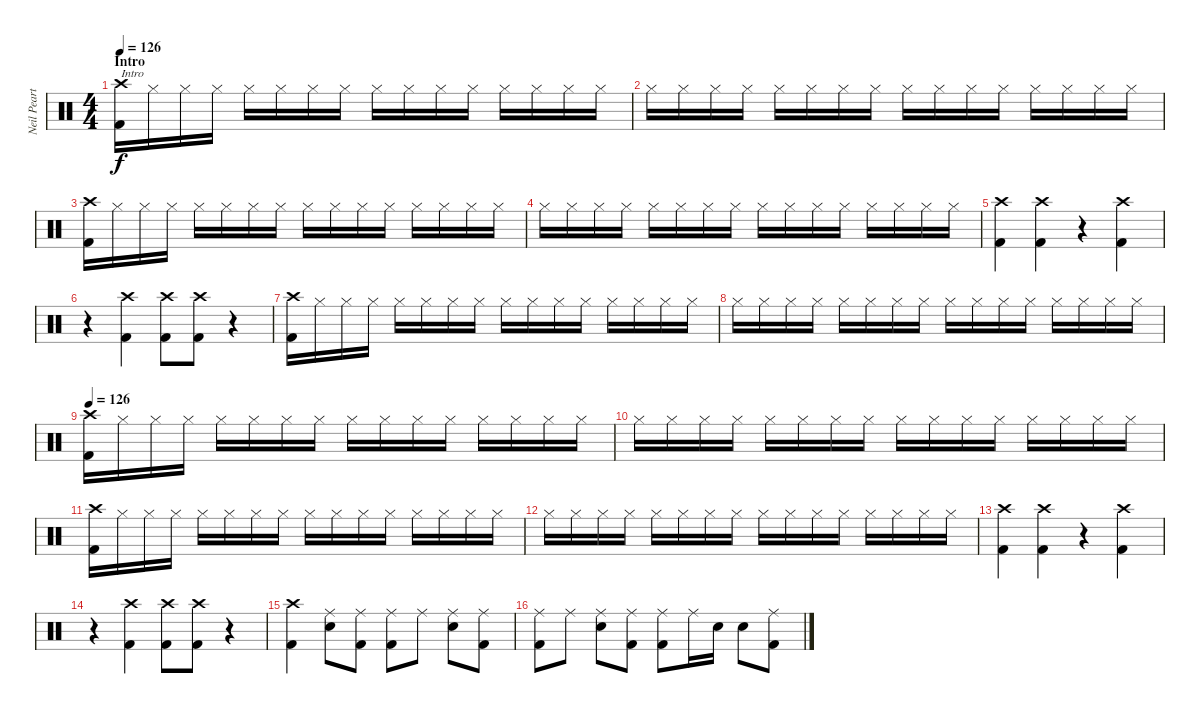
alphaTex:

\track ("Neil Peart" "Neil Peart") {instrument percussion}
\staff {score}
\articulation defaults
\ts (4 4)
\section ("" "Intro")
\tempo 126
\clef neutral
\ks c
("Crash high (hit)" "Kick (hit) 2").16{txt "Intro" dy f} "Hi-Hat (closed)".16 "Hi-Hat (closed)".16 "Hi-Hat (closed)".16 "Hi-Hat (closed)".16 "Hi-Hat (closed)".16 "Hi-Hat (closed)".16 "Hi-Hat (closed)".16 "Hi-Hat (closed)".16 "Hi-Hat (closed)".16 "Hi-Hat (closed)".16 "Hi-Hat (closed)".16 "Hi-Hat (closed)".16 "Hi-Hat (closed)".16 "Hi-Hat (closed)".16 "Hi-Hat (closed)".16 |
"Hi-Hat (closed)".16 "Hi-Hat (closed)".16 "Hi-Hat (closed)".16 "Hi-Hat (closed)".16 "Hi-Hat (closed)".16 "Hi-Hat (closed)".16 "Hi-Hat (closed)".16 "Hi-Hat (closed)".16 "Hi-Hat (closed)".16 "Hi-Hat (closed)".16 "Hi-Hat (closed)".16 "Hi-Hat (closed)".16 "Hi-Hat (closed)".16 "Hi-Hat (closed)".16 "Hi-Hat (closed)".16 "Hi-Hat (closed)".16 |
("Crash high (hit)" "Kick (hit) 2").16 "Hi-Hat (closed)".16 "Hi-Hat (closed)".16 "Hi-Hat (closed)".16 "Hi-Hat (closed)".16 "Hi-Hat (closed)".16 "Hi-Hat (closed)".16 "Hi-Hat (closed)".16 "Hi-Hat (closed)".16 "Hi-Hat (closed)".16 "Hi-Hat (closed)".16 "Hi-Hat (closed)".16 "Hi-Hat (closed)".16 "Hi-Hat (closed)".16 "Hi-Hat (closed)".16 "Hi-Hat (closed)".16 |
"Hi-Hat (closed)".16 "Hi-Hat (closed)".16 "Hi-Hat (closed)".16 "Hi-Hat (closed)".16 "Hi-Hat (closed)".16 "Hi-Hat (closed)".16 "Hi-Hat (closed)".16 "Hi-Hat (closed)".16 "Hi-Hat (closed)".16 "Hi-Hat (closed)".16 "Hi-Hat (closed)".16 "Hi-Hat (closed)".16 "Hi-Hat (closed)".16 "Hi-Hat (closed)".16 "Hi-Hat (closed)".16 "Hi-Hat (closed)".16 |
("Crash high (hit)" "Kick (hit) 2").4 ("Crash high (hit)" "Kick (hit) 2").4 r.4 ("Crash high (hit)" "Kick (hit) 2").4 |
r.4 ("Crash high (hit)" "Kick (hit) 2").4 ("Crash high (hit)" "Kick (hit) 2").8 ("Crash high (hit)" "Kick (hit) 2").8 r.4 |
("Crash high (hit)" "Kick (hit) 2").16 "Hi-Hat (closed)".16 "Hi-Hat (closed)".16 "Hi-Hat (closed)".16 "Hi-Hat (closed)".16 "Hi-Hat (closed)".16 "Hi-Hat (closed)".16 "Hi-Hat (closed)".16 "Hi-Hat (closed)".16 "Hi-Hat (closed)".16 "Hi-Hat (closed)".16 "Hi-Hat (closed)".16 "Hi-Hat (closed)".16 "Hi-Hat (closed)".16 "Hi-Hat (closed)".16 "Hi-Hat (closed)".16 |
"Hi-Hat (closed)".16 "Hi-Hat (closed)".16 "Hi-Hat (closed)".16 "Hi-Hat (closed)".16 "Hi-Hat (closed)".16 "Hi-Hat (closed)".16 "Hi-Hat (closed)".16 "Hi-Hat (closed)".16 "Hi-Hat (closed)".16 "Hi-Hat (closed)".16 "Hi-Hat (closed)".16 "Hi-Hat (closed)".16 "Hi-Hat (closed)".16 "Hi-Hat (closed)".16 "Hi-Hat (closed)".16 "Hi-Hat (closed)".16 |
\tempo 126
("Crash high (hit)" "Kick (hit) 2").16 "Hi-Hat (closed)".16 "Hi-Hat (closed)".16 "Hi-Hat (closed)".16 "Hi-Hat (closed)".16 "Hi-Hat (closed)".16 "Hi-Hat (closed)".16 "Hi-Hat (closed)".16 "Hi-Hat (closed)".16 "Hi-Hat (closed)".16 "Hi-Hat (closed)".16 "Hi-Hat (closed)".16 "Hi-Hat (closed)".16 "Hi-Hat (closed)".16 "Hi-Hat (closed)".16 "Hi-Hat (closed)".16 |
"Hi-Hat (closed)".16 "Hi-Hat (closed)".16 "Hi-Hat (closed)".16 "Hi-Hat (closed)".16 "Hi-Hat (closed)".16 "Hi-Hat (closed)".16 "Hi-Hat (closed)".16 "Hi-Hat (closed)".16 "Hi-Hat (closed)".16 "Hi-Hat (closed)".16 "Hi-Hat (closed)".16 "Hi-Hat (closed)".16 "Hi-Hat (closed)".16 "Hi-Hat (closed)".16 "Hi-Hat (closed)".16 "Hi-Hat (closed)".16 |
("Crash high (hit)" "Kick (hit) 2").16 "Hi-Hat (closed)".16 "Hi-Hat (closed)".16 "Hi-Hat (closed)".16 "Hi-Hat (closed)".16 "Hi-Hat (closed)".16 "Hi-Hat (closed)".16 "Hi-Hat (closed)".16 "Hi-Hat (closed)".16 "Hi-Hat (closed)".16 "Hi-Hat (closed)".16 "Hi-Hat (closed)".16 "Hi-Hat (closed)".16 "Hi-Hat (closed)".16 "Hi-Hat (closed)".16 "Hi-Hat (closed)".16 |
"Hi-Hat (closed)".16 "Hi-Hat (closed)".16 "Hi-Hat (closed)".16 "Hi-Hat (closed)".16 "Hi-Hat (closed)".16 "Hi-Hat (closed)".16 "Hi-Hat (closed)".16 "Hi-Hat (closed)".16 "Hi-Hat (closed)".16 "Hi-Hat (closed)".16 "Hi-Hat (closed)".16 "Hi-Hat (closed)".16 "Hi-Hat (closed)".16 "Hi-Hat (closed)".16 "Hi-Hat (closed)".16 "Hi-Hat (closed)".16 |
("Crash high (hit)" "Kick (hit) 2").4 ("Crash high (hit)" "Kick (hit) 2").4 r.4 ("Crash high (hit)" "Kick (hit) 2").4 |
r.4 ("Crash high (hit)" "Kick (hit) 2").4 ("Crash high (hit)" "Kick (hit) 2").8 ("Crash high (hit)" "Kick (hit) 2").8 r.4 |
("Crash high (hit)" "Kick (hit) 2").4 ("Electric Snare (hit)" "Ride (middle)").8 ("Ride (middle)" "Kick (hit) 2").8 ("Ride (middle)" "Kick (hit) 2").8 "Ride (middle)".8 ("Electric Snare (hit)" "Ride (middle)").8 ("Ride (middle)" "Kick (hit) 2").8 |
("Ride (middle)" "Kick (hit) 2").8 "Ride (middle)".8 ("Electric Snare (hit)" "Ride (middle)").8 ("Ride (middle)" "Kick (hit) 2").8 ("Ride (middle)" "Kick (hit) 2").8 "Ride (middle)".16 "Electric Snare (hit)".16 "Electric Snare (hit)".8 ("Ride (middle)" "Kick (hit) 2").8
